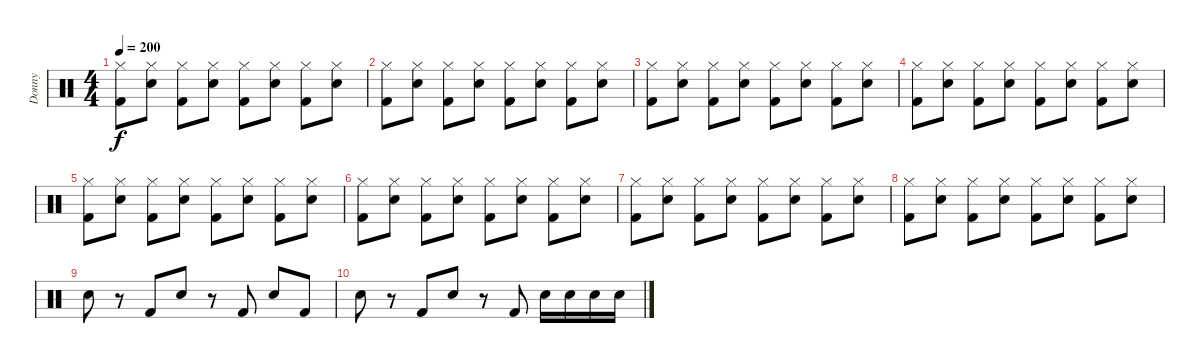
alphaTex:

\track ("Donny" "Donny") {instrument percussion}
\staff {score}
\articulation defaults
\ts (4 4)
\tempo 200
\clef neutral
\ks c
("Hi-Hat (closed)" "Kick (hit) 2").8{dy f} ("Hi-Hat (closed)" "Electric Snare (hit)").8 ("Hi-Hat (closed)" "Kick (hit) 2").8 ("Hi-Hat (closed)" "Electric Snare (hit)").8 ("Hi-Hat (closed)" "Kick (hit) 2").8 ("Hi-Hat (closed)" "Electric Snare (hit)").8 ("Hi-Hat (closed)" "Kick (hit) 2").8 ("Hi-Hat (closed)" "Electric Snare (hit)").8 |
("Hi-Hat (closed)" "Kick (hit) 2").8 ("Hi-Hat (closed)" "Electric Snare (hit)").8 ("Hi-Hat (closed)" "Kick (hit) 2").8 ("Hi-Hat (closed)" "Electric Snare (hit)").8 ("Hi-Hat (closed)" "Kick (hit) 2").8 ("Hi-Hat (closed)" "Electric Snare (hit)").8 ("Hi-Hat (closed)" "Kick (hit) 2").8 ("Hi-Hat (closed)" "Electric Snare (hit)").8 |
("Hi-Hat (closed)" "Kick (hit) 2").8 ("Hi-Hat (closed)" "Electric Snare (hit)").8 ("Hi-Hat (closed)" "Kick (hit) 2").8 ("Hi-Hat (closed)" "Electric Snare (hit)").8 ("Hi-Hat (closed)" "Kick (hit) 2").8 ("Hi-Hat (closed)" "Electric Snare (hit)").8 ("Hi-Hat (closed)" "Kick (hit) 2").8 ("Hi-Hat (closed)" "Electric Snare (hit)").8 |
("Hi-Hat (closed)" "Kick (hit) 2").8 ("Hi-Hat (closed)" "Electric Snare (hit)").8 ("Hi-Hat (closed)" "Kick (hit) 2").8 ("Hi-Hat (closed)" "Electric Snare (hit)").8 ("Hi-Hat (closed)" "Kick (hit) 2").8 ("Hi-Hat (closed)" "Electric Snare (hit)").8 ("Hi-Hat (closed)" "Kick (hit) 2").8 ("Hi-Hat (closed)" "Electric Snare (hit)").8 |
("Hi-Hat (closed)" "Kick (hit) 2").8 ("Hi-Hat (closed)" "Electric Snare (hit)").8 ("Hi-Hat (closed)" "Kick (hit) 2").8 ("Hi-Hat (closed)" "Electric Snare (hit)").8 ("Hi-Hat (closed)" "Kick (hit) 2").8 ("Hi-Hat (closed)" "Electric Snare (hit)").8 ("Hi-Hat (closed)" "Kick (hit) 2").8 ("Hi-Hat (closed)" "Electric Snare (hit)").8 |
("Hi-Hat (closed)" "Kick (hit) 2").8 ("Hi-Hat (closed)" "Electric Snare (hit)").8 ("Hi-Hat (closed)" "Kick (hit) 2").8 ("Hi-Hat (closed)" "Electric Snare (hit)").8 ("Hi-Hat (closed)" "Kick (hit) 2").8 ("Hi-Hat (closed)" "Electric Snare (hit)").8 ("Hi-Hat (closed)" "Kick (hit) 2").8 ("Hi-Hat (closed)" "Electric Snare (hit)").8 |
("Hi-Hat (closed)" "Kick (hit) 2").8 ("Hi-Hat (closed)" "Electric Snare (hit)").8 ("Hi-Hat (closed)" "Kick (hit) 2").8 ("Hi-Hat (closed)" "Electric Snare (hit)").8 ("Hi-Hat (closed)" "Kick (hit) 2").8 ("Hi-Hat (closed)" "Electric Snare (hit)").8 ("Hi-Hat (closed)" "Kick (hit) 2").8 ("Hi-Hat (closed)" "Electric Snare (hit)").8 |
("Hi-Hat (closed)" "Kick (hit) 2").8 ("Hi-Hat (closed)" "Electric Snare (hit)").8 ("Hi-Hat (closed)" "Kick (hit) 2").8 ("Hi-Hat (closed)" "Electric Snare (hit)").8 ("Hi-Hat (closed)" "Kick (hit) 2").8 ("Hi-Hat (closed)" "Electric Snare (hit)").8 ("Hi-Hat (closed)" "Kick (hit) 2").8 ("Hi-Hat (closed)" "Electric Snare (hit)").8 |
"Electric Snare (hit)".8 r.8 "Kick (hit) 2".8 "Electric Snare (hit)".8 r.8 "Kick (hit) 2".8 "Electric Snare (hit)".8 "Kick (hit) 2".8 |
"Electric Snare (hit)".8 r.8 "Kick (hit) 2".8 "Electric Snare (hit)".8 r.8 "Kick (hit) 2".8 "Electric Snare (hit)".16 "Electric Snare (hit)".16 "Electric Snare (hit)".16 "Electric Snare (hit)".16
